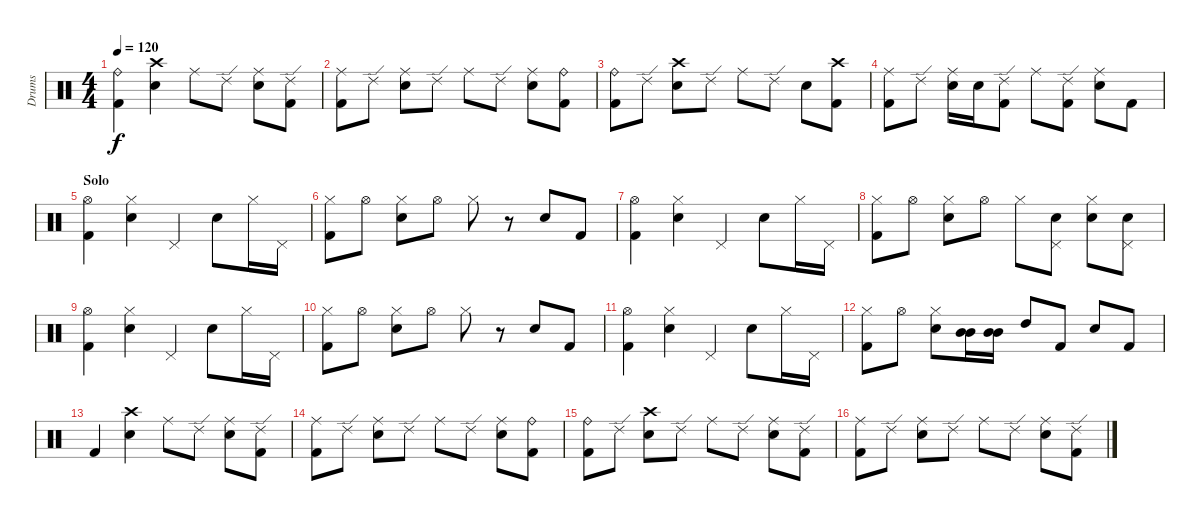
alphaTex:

\track ("Drums" "Drums") {instrument percussion}
\staff {score}
\articulation defaults
\ts (4 4)
\tempo 120
\clef neutral
\ks c
("Kick (hit) 2" "Ride (bell)").4{dy f} ("Electric Snare (hit)" "Crash high (hit)").4 "Ride (middle)".8 "Ride (edge) 2".8 ("Electric Snare (hit)" "Ride (middle)").8 ("Kick (hit) 2" "Ride (edge) 2").8 |
("Kick (hit) 2" "Ride (middle)").8 "Ride (edge) 2".8 ("Electric Snare (hit)" "Ride (middle)").8 "Ride (edge) 2".8 "Ride (middle)".8 "Ride (edge) 2".8 ("Electric Snare (hit)" "Ride (middle)").8 ("Kick (hit) 2" "Ride (bell)").8 |
("Kick (hit) 2" "Ride (bell)").8 "Ride (edge) 2".8 ("Electric Snare (hit)" "Crash high (hit)").8 "Ride (edge) 2".8 "Ride (middle)".8 "Ride (edge) 2".8 "Electric Snare (hit)".8 ("Kick (hit) 2" "Crash high (hit)").8 |
("Kick (hit) 2" "Ride (middle)").8 "Ride (edge) 2".8 ("Electric Snare (hit)" "Ride (middle)").16 "Snare (hit) 2".16 ("Kick (hit) 2" "Ride (edge) 2").8 "Ride (middle)".8 ("Kick (hit) 2" "Ride (edge) 2").8 ("Electric Snare (hit)" "Ride (middle)").8 "Kick (hit) 2".8 |
\section ("" "Solo")
("Kick (hit) 2" "Hi-Hat (open)").4 ("Electric Snare (hit)" "Hi-Hat (closed)").4 "Pedal Hi-Hat (hit)".4 "Electric Snare (hit)".8 "Hi-Hat (closed)".16 "Pedal Hi-Hat (hit)".16 |
("Kick (hit) 2" "Hi-Hat (closed)").8 "Hi-Hat (open)".8 ("Electric Snare (hit)" "Hi-Hat (closed)").8 "Hi-Hat (open)".8 "Hi-Hat (closed)".8 r.8 "Electric Snare (hit)".8 "Kick (hit) 2".8 |
("Kick (hit) 2" "Hi-Hat (open)").4 ("Electric Snare (hit)" "Hi-Hat (closed)").4 "Pedal Hi-Hat (hit)".4 "Electric Snare (hit)".8 "Hi-Hat (closed)".16 "Pedal Hi-Hat (hit)".16 |
("Kick (hit) 2" "Hi-Hat (closed)").8 "Hi-Hat (open)".8 ("Electric Snare (hit)" "Hi-Hat (closed)").8 "Hi-Hat (open)".8 "Hi-Hat (closed)".8 ("Snare (hit) 2" "Pedal Hi-Hat (hit)").8 ("Snare (hit) 2" "Hi-Hat (closed)").8 ("Snare (hit) 2" "Pedal Hi-Hat (hit)").8 |
("Kick (hit) 2" "Hi-Hat (open)").4 ("Electric Snare (hit)" "Hi-Hat (closed)").4 "Pedal Hi-Hat (hit)".4 "Electric Snare (hit)".8 "Hi-Hat (closed)".16 "Pedal Hi-Hat (hit)".16 |
("Kick (hit) 2" "Hi-Hat (closed)").8 "Hi-Hat (open)".8 ("Electric Snare (hit)" "Hi-Hat (closed)").8 "Hi-Hat (open)".8 "Hi-Hat (closed)".8 r.8 "Electric Snare (hit)".8 "Kick (hit) 2".8 |
("Kick (hit) 2" "Hi-Hat (open)").4 ("Electric Snare (hit)" "Hi-Hat (closed)").4 "Pedal Hi-Hat (hit)".4 "Electric Snare (hit)".8 "Hi-Hat (closed)".16 "Pedal Hi-Hat (hit)".16 |
("Kick (hit) 2" "Hi-Hat (closed)").8 "Hi-Hat (open)".8 ("Electric Snare (hit)" "Hi-Hat (closed)").8 ("Mid Tom (hit)" "Mid Tom (hit)").16 ("Mid Tom (hit)" "Mid Tom (hit)").16 "High Tom (hit)".8 "Kick (hit) 2".8 "Electric Snare (hit)".8 "Kick (hit) 2".8 |
"Kick (hit) 2".4 ("Electric Snare (hit)" "Crash high (hit)").4 "Ride (middle)".8 "Ride (edge) 2".8 ("Electric Snare (hit)" "Ride (middle)").8 ("Kick (hit) 2" "Ride (edge) 2").8 |
("Kick (hit) 2" "Ride (middle)").8 "Ride (edge) 2".8 ("Electric Snare (hit)" "Ride (middle)").8 "Ride (edge) 2".8 "Ride (middle)".8 "Ride (edge) 2".8 ("Electric Snare (hit)" "Ride (middle)").8 ("Kick (hit) 2" "Ride (bell)").8 |
("Kick (hit) 2" "Ride (bell)").8 "Ride (edge) 2".8 ("Electric Snare (hit)" "Crash high (hit)").8 "Ride (edge) 2".8 "Ride (middle)".8 "Ride (edge) 2".8 ("Electric Snare (hit)" "Ride (middle)").8 ("Kick (hit) 2" "Ride (edge) 2").8 |
("Kick (hit) 2" "Ride (middle)").8 "Ride (edge) 2".8 ("Electric Snare (hit)" "Ride (middle)").8 "Ride (edge) 2".8 "Ride (middle)".8 "Ride (edge) 2".8 ("Electric Snare (hit)" "Ride (middle)").8 ("Kick (hit) 2" "Ride (edge) 2").8
